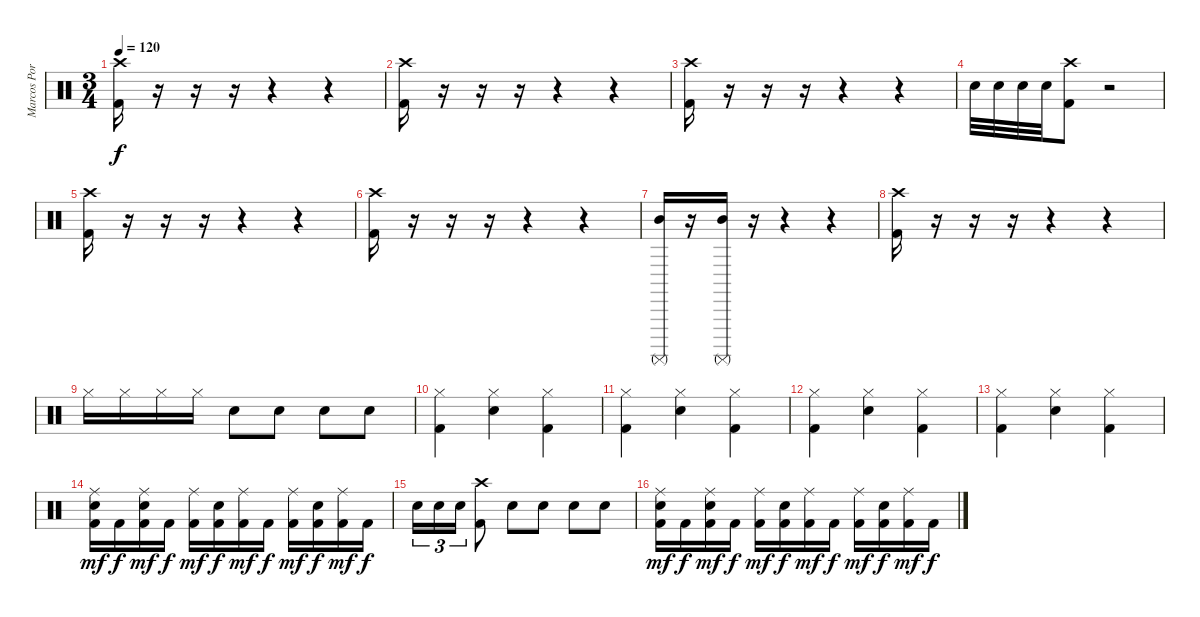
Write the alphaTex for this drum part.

\track ("Marcos Portinol" "Marcos Por") {instrument percussion}
\staff {score}
\articulation defaults
\ts (3 4)
\tempo 120
\clef neutral
\ks c
("Kick (hit) 2" "Crash high (hit)").16{dy f} r.16 r.16 r.16 r.4 r.4 |
("Kick (hit) 2" "Crash high (hit)").16 r.16 r.16 r.16 r.4 r.4 |
("Kick (hit) 2" "Crash high (hit)").16 r.16 r.16 r.16 r.4 r.4 |
"Electric Snare (hit)".32 "Electric Snare (hit)".32 "Electric Snare (hit)".32 "Electric Snare (hit)".32 ("Kick (hit) 2" "Crash high (hit)").8 r.2 |
("Kick (hit) 2" "Crash high (hit)").16 r.16 r.16 r.16 r.4 r.4 |
("Kick (hit) 2" "Crash high (hit)").16 r.16 r.16 r.16 r.4 r.4 |
("Surdo (mute)" "Mid Tom (hit)").16 r.16 ("Surdo (mute)" "Mid Tom (hit)").16 r.16 r.4 r.4 |
("Kick (hit) 2" "Crash high (hit)").16 r.16 r.16 r.16 r.4 r.4 |
"Hi-Hat (closed)".16 "Hi-Hat (closed)".16 "Hi-Hat (closed)".16 "Hi-Hat (closed)".16 "Electric Snare (hit)".8 "Electric Snare (hit)".8 "Electric Snare (hit)".8 "Electric Snare (hit)".8 |
("Kick (hit) 2" "Hi-Hat (closed)").4 ("Electric Snare (hit)" "Hi-Hat (closed)").4 ("Kick (hit) 2" "Hi-Hat (closed)").4 |
("Kick (hit) 2" "Hi-Hat (closed)").4 ("Electric Snare (hit)" "Hi-Hat (closed)").4 ("Kick (hit) 2" "Hi-Hat (closed)").4 |
("Kick (hit) 2" "Hi-Hat (closed)").4 ("Electric Snare (hit)" "Hi-Hat (closed)").4 ("Kick (hit) 2" "Hi-Hat (closed)").4 |
("Kick (hit) 2" "Hi-Hat (closed)").4 ("Electric Snare (hit)" "Hi-Hat (closed)").4 ("Kick (hit) 2" "Hi-Hat (closed)").4 |
("Kick (hit) 2" "Electric Snare (hit)" "Ride (middle)").16{dy mf} "Kick (hit) 2".16{dy f} ("Kick (hit) 2" "Electric Snare (hit)" "Ride (middle)").16{dy mf} "Kick (hit) 2".16{dy f} ("Kick (hit) 2" "Ride (middle)").16{dy mf} ("Kick (hit) 2" "Electric Snare (hit)").16{dy f} ("Kick (hit) 2" "Ride (middle)").16{dy mf} "Kick (hit) 2".16{dy f} ("Kick (hit) 2" "Ride (middle)").16{dy mf} ("Kick (hit) 2" "Electric Snare (hit)").16{dy f} ("Kick (hit) 2" "Ride (middle)").16{dy mf} "Kick (hit) 2".16{dy f} |
"Electric Snare (hit)".16{tu (3 2)} "Electric Snare (hit)".16{tu (3 2)} "Electric Snare (hit)".16{tu (3 2)} ("Kick (hit) 2" "Crash high (hit)").8 "Electric Snare (hit)".8 "Electric Snare (hit)".8 "Electric Snare (hit)".8 "Electric Snare (hit)".8 |
("Kick (hit) 2" "Electric Snare (hit)" "Ride (middle)").16{dy mf} "Kick (hit) 2".16{dy f} ("Kick (hit) 2" "Electric Snare (hit)" "Ride (middle)").16{dy mf} "Kick (hit) 2".16{dy f} ("Kick (hit) 2" "Ride (middle)").16{dy mf} ("Kick (hit) 2" "Electric Snare (hit)").16{dy f} ("Kick (hit) 2" "Ride (middle)").16{dy mf} "Kick (hit) 2".16{dy f} ("Kick (hit) 2" "Ride (middle)").16{dy mf} ("Kick (hit) 2" "Electric Snare (hit)").16{dy f} ("Kick (hit) 2" "Ride (middle)").16{dy mf} "Kick (hit) 2".16{dy f}
